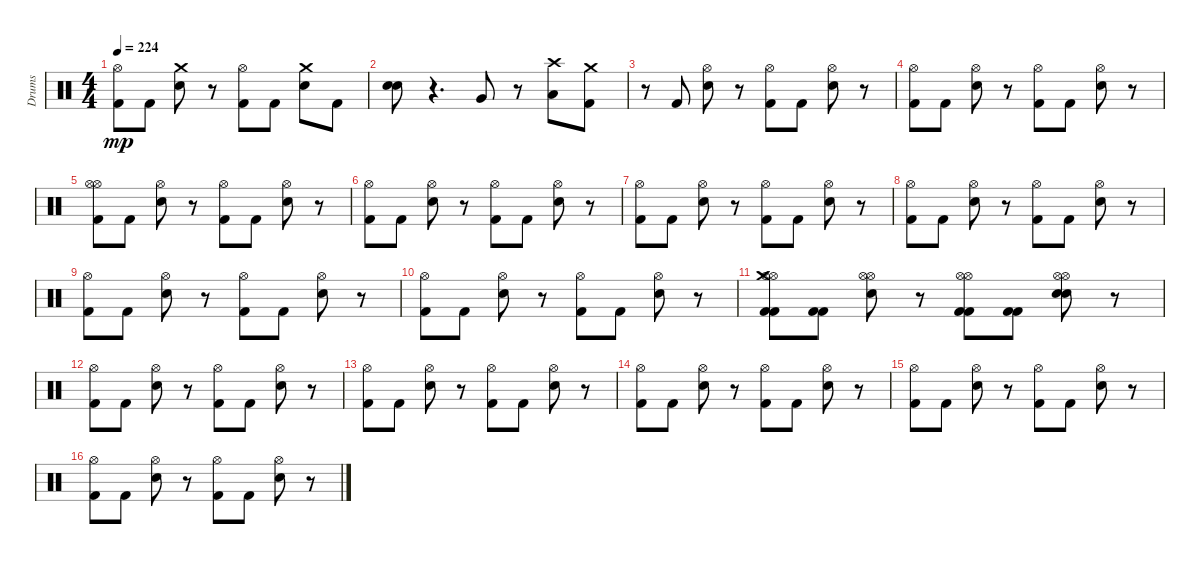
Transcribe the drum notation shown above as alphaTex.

\track ("Drums" "Drums") {instrument percussion}
\staff {score}
\articulation defaults
\ts (4 4)
\tempo 224
\clef neutral
\ks c
("Hi-Hat (open)" "Kick (hit) 2").8{dy mp} "Kick (hit) 2".8 ("Crash medium (hit)" "Electric Snare (hit)").8 r.8 ("Hi-Hat (open)" "Kick (hit) 2").8 "Kick (hit) 2".8 ("Electric Snare (hit)" "Crash medium (hit)").8 "Kick (hit) 2".8 |
("Snare (hit) 2" "Electric Snare (hit)").8 r.4{d} "Very Low Tom (hit)".8 r.8 ("Crash high (hit)" "Low Floor Tom (hit)").8 ("Crash medium (hit)" "Kick (hit) 2").8 |
r.8 "Kick (hit) 2".8 ("Hi-Hat (open)" "Electric Snare (hit)").8 r.8 ("Kick (hit) 2" "Hi-Hat (open)").8 "Kick (hit) 2".8 ("Electric Snare (hit)" "Hi-Hat (open)").8 r.8 |
("Kick (hit) 2" "Hi-Hat (open)").8 "Kick (hit) 2".8 ("Hi-Hat (open)" "Electric Snare (hit)").8 r.8 ("Hi-Hat (open)" "Kick (hit) 2").8 "Kick (hit) 2".8 ("Hi-Hat (open)" "Electric Snare (hit)").8 r.8 |
("Hi-Hat (open)" "Hi-Hat (open)" "Kick (hit) 2").8 "Kick (hit) 2".8 ("Hi-Hat (open)" "Electric Snare (hit)").8 r.8 ("Hi-Hat (open)" "Kick (hit) 2").8 "Kick (hit) 2".8 ("Electric Snare (hit)" "Hi-Hat (open)").8 r.8 |
("Kick (hit) 2" "Hi-Hat (open)").8 "Kick (hit) 2".8 ("Hi-Hat (open)" "Electric Snare (hit)").8 r.8 ("Kick (hit) 2" "Hi-Hat (open)").8 "Kick (hit) 2".8 ("Electric Snare (hit)" "Hi-Hat (open)").8 r.8 |
("Hi-Hat (open)" "Kick (hit) 2").8 "Kick (hit) 2".8 ("Hi-Hat (open)" "Electric Snare (hit)").8 r.8 ("Kick (hit) 2" "Hi-Hat (open)").8 "Kick (hit) 2".8 ("Electric Snare (hit)" "Hi-Hat (open)").8 r.8 |
("Hi-Hat (open)" "Kick (hit) 2").8 "Kick (hit) 2".8 ("Hi-Hat (open)" "Electric Snare (hit)").8 r.8 ("Hi-Hat (open)" "Kick (hit) 2").8 "Kick (hit) 2".8 ("Electric Snare (hit)" "Hi-Hat (open)").8 r.8 |
("Hi-Hat (open)" "Kick (hit) 2").8 "Kick (hit) 2".8 ("Hi-Hat (open)" "Electric Snare (hit)").8 r.8 ("Kick (hit) 2" "Hi-Hat (open)").8 "Kick (hit) 2".8 ("Electric Snare (hit)" "Hi-Hat (open)").8 r.8 |
("Kick (hit) 2" "Hi-Hat (open)").8 "Kick (hit) 2".8 ("Electric Snare (hit)" "Hi-Hat (open)").8 r.8 ("Hi-Hat (open)" "Kick (hit) 2").8 "Kick (hit) 2".8 ("Hi-Hat (open)" "Electric Snare (hit)").8 r.8 |
("Kick (hit) 2" "Hi-Hat (open)" "Crash medium (hit)" "Hi-Hat (open)" "Kick (hit) 2").8 ("Kick (hit) 2" "Kick (hit) 2").8 ("Electric Snare (hit)" "Hi-Hat (open)" "Hi-Hat (open)").8 r.8 ("Kick (hit) 2" "Hi-Hat (open)" "Hi-Hat (open)" "Kick (hit) 2").8 ("Kick (hit) 2" "Kick (hit) 2").8 ("Electric Snare (hit)" "Hi-Hat (open)" "Electric Snare (hit)" "Hi-Hat (open)").8 r.8 |
("Kick (hit) 2" "Hi-Hat (open)").8 "Kick (hit) 2".8 ("Hi-Hat (open)" "Electric Snare (hit)").8 r.8 ("Hi-Hat (open)" "Kick (hit) 2").8 "Kick (hit) 2".8 ("Hi-Hat (open)" "Electric Snare (hit)").8 r.8 |
("Kick (hit) 2" "Hi-Hat (open)").8 "Kick (hit) 2".8 ("Hi-Hat (open)" "Electric Snare (hit)").8 r.8 ("Hi-Hat (open)" "Kick (hit) 2").8 "Kick (hit) 2".8 ("Hi-Hat (open)" "Electric Snare (hit)").8 r.8 |
("Kick (hit) 2" "Hi-Hat (open)").8 "Kick (hit) 2".8 ("Electric Snare (hit)" "Hi-Hat (open)").8 r.8 ("Hi-Hat (open)" "Kick (hit) 2").8 "Kick (hit) 2".8 ("Hi-Hat (open)" "Electric Snare (hit)").8 r.8 |
("Hi-Hat (open)" "Kick (hit) 2").8 "Kick (hit) 2".8 ("Electric Snare (hit)" "Hi-Hat (open)").8 r.8 ("Hi-Hat (open)" "Kick (hit) 2").8 "Kick (hit) 2".8 ("Electric Snare (hit)" "Hi-Hat (open)").8 r.8 |
("Kick (hit) 2" "Hi-Hat (open)").8 "Kick (hit) 2".8 ("Electric Snare (hit)" "Hi-Hat (open)").8 r.8 ("Hi-Hat (open)" "Kick (hit) 2").8 "Kick (hit) 2".8 ("Hi-Hat (open)" "Electric Snare (hit)").8 r.8
